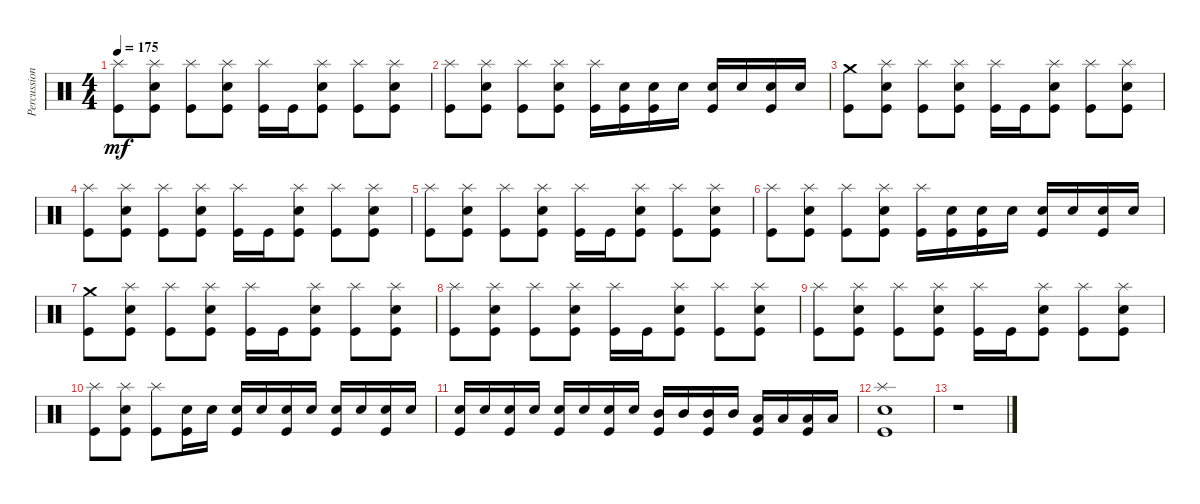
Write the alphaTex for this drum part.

\track ("Percussioni" "Percussion") {instrument percussion}
\staff {score}
\articulation defaults
\ts (4 4)
\tempo 175
\clef neutral
\ks c
("Splash (hit)" "Kick (hit)").8{dy mf} ("Electric Snare (hit)" "Splash (hit)" "Kick (hit)").8 ("Splash (hit)" "Kick (hit)").8 ("Electric Snare (hit)" "Splash (hit)" "Kick (hit)").8 ("Splash (hit)" "Kick (hit)").16 "Kick (hit)".16 ("Electric Snare (hit)" "Splash (hit)" "Kick (hit)").8 ("Splash (hit)" "Kick (hit)").8 ("Electric Snare (hit)" "Splash (hit)" "Kick (hit)").8 |
("Splash (hit)" "Kick (hit)").8 ("Electric Snare (hit)" "Splash (hit)" "Kick (hit)").8 ("Splash (hit)" "Kick (hit)").8 ("Electric Snare (hit)" "Splash (hit)" "Kick (hit)").8 ("Splash (hit)" "Kick (hit)").16 ("Electric Snare (hit)" "Kick (hit)").16 ("Electric Snare (hit)" "Kick (hit)").16 "Electric Snare (hit)".16 ("Electric Snare (hit)" "Kick (hit)").16 "Electric Snare (hit)".16 ("Electric Snare (hit)" "Kick (hit)").16 "Electric Snare (hit)".16 |
("Crash medium (hit)" "Kick (hit)").8 ("Electric Snare (hit)" "Splash (hit)" "Kick (hit)").8 ("Splash (hit)" "Kick (hit)").8 ("Electric Snare (hit)" "Splash (hit)" "Kick (hit)").8 ("Splash (hit)" "Kick (hit)").16 "Kick (hit)".16 ("Electric Snare (hit)" "Splash (hit)" "Kick (hit)").8 ("Splash (hit)" "Kick (hit)").8 ("Electric Snare (hit)" "Splash (hit)" "Kick (hit)").8 |
("Splash (hit)" "Kick (hit)").8 ("Electric Snare (hit)" "Splash (hit)" "Kick (hit)").8 ("Splash (hit)" "Kick (hit)").8 ("Electric Snare (hit)" "Splash (hit)" "Kick (hit)").8 ("Splash (hit)" "Kick (hit)").16 "Kick (hit)".16 ("Electric Snare (hit)" "Splash (hit)" "Kick (hit)").8 ("Splash (hit)" "Kick (hit)").8 ("Electric Snare (hit)" "Splash (hit)" "Kick (hit)").8 |
("Splash (hit)" "Kick (hit)").8 ("Electric Snare (hit)" "Splash (hit)" "Kick (hit)").8 ("Splash (hit)" "Kick (hit)").8 ("Electric Snare (hit)" "Splash (hit)" "Kick (hit)").8 ("Splash (hit)" "Kick (hit)").16 "Kick (hit)".16 ("Electric Snare (hit)" "Splash (hit)" "Kick (hit)").8 ("Splash (hit)" "Kick (hit)").8 ("Electric Snare (hit)" "Splash (hit)" "Kick (hit)").8 |
("Splash (hit)" "Kick (hit)").8 ("Electric Snare (hit)" "Splash (hit)" "Kick (hit)").8 ("Splash (hit)" "Kick (hit)").8 ("Electric Snare (hit)" "Splash (hit)" "Kick (hit)").8 ("Splash (hit)" "Kick (hit)").16 ("Electric Snare (hit)" "Kick (hit)").16 ("Electric Snare (hit)" "Kick (hit)").16 "Electric Snare (hit)".16 ("Electric Snare (hit)" "Kick (hit)").16 "Electric Snare (hit)".16 ("Electric Snare (hit)" "Kick (hit)").16 "Electric Snare (hit)".16 |
("Crash medium (hit)" "Kick (hit)").8 ("Electric Snare (hit)" "Splash (hit)" "Kick (hit)").8 ("Splash (hit)" "Kick (hit)").8 ("Electric Snare (hit)" "Splash (hit)" "Kick (hit)").8 ("Splash (hit)" "Kick (hit)").16 "Kick (hit)".16 ("Electric Snare (hit)" "Splash (hit)" "Kick (hit)").8 ("Splash (hit)" "Kick (hit)").8 ("Electric Snare (hit)" "Splash (hit)" "Kick (hit)").8 |
("Splash (hit)" "Kick (hit)").8 ("Electric Snare (hit)" "Splash (hit)" "Kick (hit)").8 ("Splash (hit)" "Kick (hit)").8 ("Electric Snare (hit)" "Splash (hit)" "Kick (hit)").8 ("Splash (hit)" "Kick (hit)").16 "Kick (hit)".16 ("Electric Snare (hit)" "Splash (hit)" "Kick (hit)").8 ("Splash (hit)" "Kick (hit)").8 ("Electric Snare (hit)" "Splash (hit)" "Kick (hit)").8 |
("Splash (hit)" "Kick (hit)").8 ("Electric Snare (hit)" "Splash (hit)" "Kick (hit)").8 ("Splash (hit)" "Kick (hit)").8 ("Electric Snare (hit)" "Splash (hit)" "Kick (hit)").8 ("Splash (hit)" "Kick (hit)").16 "Kick (hit)".16 ("Electric Snare (hit)" "Splash (hit)" "Kick (hit)").8 ("Splash (hit)" "Kick (hit)").8 ("Electric Snare (hit)" "Splash (hit)" "Kick (hit)").8 |
("Splash (hit)" "Kick (hit)").8 ("Electric Snare (hit)" "Splash (hit)" "Kick (hit)").8 ("Splash (hit)" "Kick (hit)").8 ("Electric Snare (hit)" "Kick (hit)").16 "Electric Snare (hit)".16 ("Electric Snare (hit)" "Kick (hit)").16 "Electric Snare (hit)".16 ("Electric Snare (hit)" "Kick (hit)").16 "Electric Snare (hit)".16 ("Electric Snare (hit)" "Kick (hit)").16 "Electric Snare (hit)".16 ("Electric Snare (hit)" "Kick (hit)").16 "Electric Snare (hit)".16 |
("Electric Snare (hit)" "Kick (hit)").16 "Electric Snare (hit)".16 ("Electric Snare (hit)" "Kick (hit)").16 "Electric Snare (hit)".16 ("Electric Snare (hit)" "Kick (hit)").16 "Electric Snare (hit)".16 ("Electric Snare (hit)" "Kick (hit)").16 "Electric Snare (hit)".16 ("Mid Tom (hit)" "Kick (hit)").16 "Mid Tom (hit)".16 ("Mid Tom (hit)" "Kick (hit)").16 "Mid Tom (hit)".16 ("Low Tom (hit)" "Kick (hit)").16 "Low Tom (hit)".16 ("Low Tom (hit)" "Kick (hit)").16 "Low Tom (hit)".16 |
("Kick (hit)" "Electric Snare (hit)" "Splash (hit)").1 |
r.1
